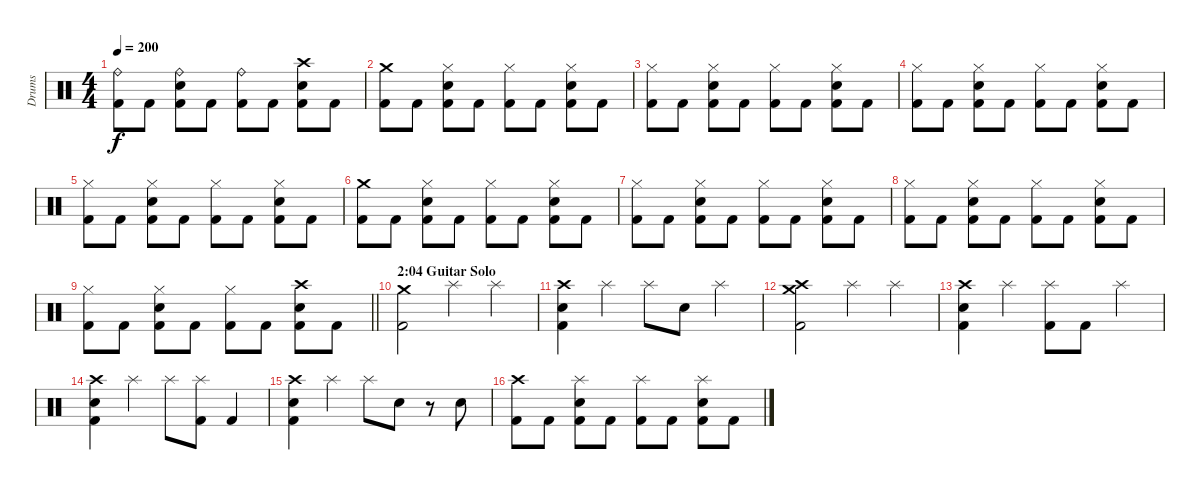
\track ("Drums" "Drums") {instrument percussion}
\staff {score}
\articulation defaults
\ts (4 4)
\tempo 200
\clef neutral
\ks c
("Ride (bell)" "Kick (hit) 2").8{dy f} "Kick (hit) 2".8 ("Ride (bell)" "Snare (hit) 2" "Kick (hit) 2").8 "Kick (hit) 2".8 ("Ride (bell)" "Kick (hit) 2").8 "Kick (hit) 2".8 ("Crash high (hit)" "Snare (hit) 2" "Kick (hit) 2").8 "Kick (hit) 2".8 |
("Crash medium (hit)" "Kick (hit) 2").8 "Kick (hit) 2".8 ("Hi-Hat (closed)" "Snare (hit) 2" "Kick (hit) 2").8 "Kick (hit) 2".8 ("Hi-Hat (closed)" "Kick (hit) 2").8 "Kick (hit) 2".8 ("Hi-Hat (closed)" "Snare (hit) 2" "Kick (hit) 2").8 "Kick (hit) 2".8 |
("Hi-Hat (closed)" "Kick (hit) 2").8 "Kick (hit) 2".8 ("Hi-Hat (closed)" "Snare (hit) 2" "Kick (hit) 2").8 "Kick (hit) 2".8 ("Hi-Hat (closed)" "Kick (hit) 2").8 "Kick (hit) 2".8 ("Hi-Hat (closed)" "Snare (hit) 2" "Kick (hit) 2").8 "Kick (hit) 2".8 |
("Hi-Hat (closed)" "Kick (hit) 2").8 "Kick (hit) 2".8 ("Hi-Hat (closed)" "Snare (hit) 2" "Kick (hit) 2").8 "Kick (hit) 2".8 ("Hi-Hat (closed)" "Kick (hit) 2").8 "Kick (hit) 2".8 ("Hi-Hat (closed)" "Snare (hit) 2" "Kick (hit) 2").8 "Kick (hit) 2".8 |
("Hi-Hat (closed)" "Kick (hit) 2").8 "Kick (hit) 2".8 ("Hi-Hat (closed)" "Snare (hit) 2" "Kick (hit) 2").8 "Kick (hit) 2".8 ("Hi-Hat (closed)" "Kick (hit) 2").8 "Kick (hit) 2".8 ("Hi-Hat (closed)" "Snare (hit) 2" "Kick (hit) 2").8 "Kick (hit) 2".8 |
("Crash medium (hit)" "Kick (hit) 2").8 "Kick (hit) 2".8 ("Hi-Hat (closed)" "Snare (hit) 2" "Kick (hit) 2").8 "Kick (hit) 2".8 ("Hi-Hat (closed)" "Kick (hit) 2").8 "Kick (hit) 2".8 ("Hi-Hat (closed)" "Snare (hit) 2" "Kick (hit) 2").8 "Kick (hit) 2".8 |
("Hi-Hat (closed)" "Kick (hit) 2").8 "Kick (hit) 2".8 ("Hi-Hat (closed)" "Snare (hit) 2" "Kick (hit) 2").8 "Kick (hit) 2".8 ("Hi-Hat (closed)" "Kick (hit) 2").8 "Kick (hit) 2".8 ("Hi-Hat (closed)" "Snare (hit) 2" "Kick (hit) 2").8 "Kick (hit) 2".8 |
("Hi-Hat (closed)" "Kick (hit) 2").8 "Kick (hit) 2".8 ("Hi-Hat (closed)" "Snare (hit) 2" "Kick (hit) 2").8 "Kick (hit) 2".8 ("Hi-Hat (closed)" "Kick (hit) 2").8 "Kick (hit) 2".8 ("Hi-Hat (closed)" "Snare (hit) 2" "Kick (hit) 2").8 "Kick (hit) 2".8 |
\barLineRight lightlight
("Hi-Hat (closed)" "Kick (hit) 2").8 "Kick (hit) 2".8 ("Hi-Hat (closed)" "Snare (hit) 2" "Kick (hit) 2").8 "Kick (hit) 2".8 ("Hi-Hat (closed)" "Kick (hit) 2").8 "Kick (hit) 2".8 ("Crash high (hit)" "Snare (hit) 2" "Kick (hit) 2").8 "Kick (hit) 2".8 |
\section ("" "2:04 Guitar Solo")
("Crash medium (hit)" "Kick (hit) 2").2 "Splash (hit)".4 "Splash (hit)".4 |
("Crash high (hit)" "Snare (hit) 2" "Kick (hit) 2").4 "Splash (hit)".4 "Splash (hit)".8 "Snare (hit) 2".8 "Splash (hit)".4 |
("Crash medium (hit)" "Crash high (hit)" "Kick (hit) 2").2 "Splash (hit)".4 "Splash (hit)".4 |
("Crash high (hit)" "Snare (hit) 2" "Kick (hit) 2").4 "Splash (hit)".4 ("Splash (hit)" "Kick (hit) 2").8 "Kick (hit) 2".8 "Splash (hit)".4 |
("Crash high (hit)" "Snare (hit) 2" "Kick (hit) 2").4 "Splash (hit)".4 "Splash (hit)".8 ("Splash (hit)" "Kick (hit) 2").8 "Kick (hit) 2".4 |
("Crash high (hit)" "Snare (hit) 2" "Kick (hit) 2").4 "Splash (hit)".4 "Splash (hit)".8 "Snare (hit) 2".8 r.8 "Snare (hit) 2".8 |
("Crash high (hit)" "Kick (hit) 2").8 "Kick (hit) 2".8 ("Splash (hit)" "Snare (hit) 2" "Kick (hit) 2").8 "Kick (hit) 2".8 ("Splash (hit)" "Kick (hit) 2").8 "Kick (hit) 2".8 ("Splash (hit)" "Snare (hit) 2" "Kick (hit) 2").8 "Kick (hit) 2".8
